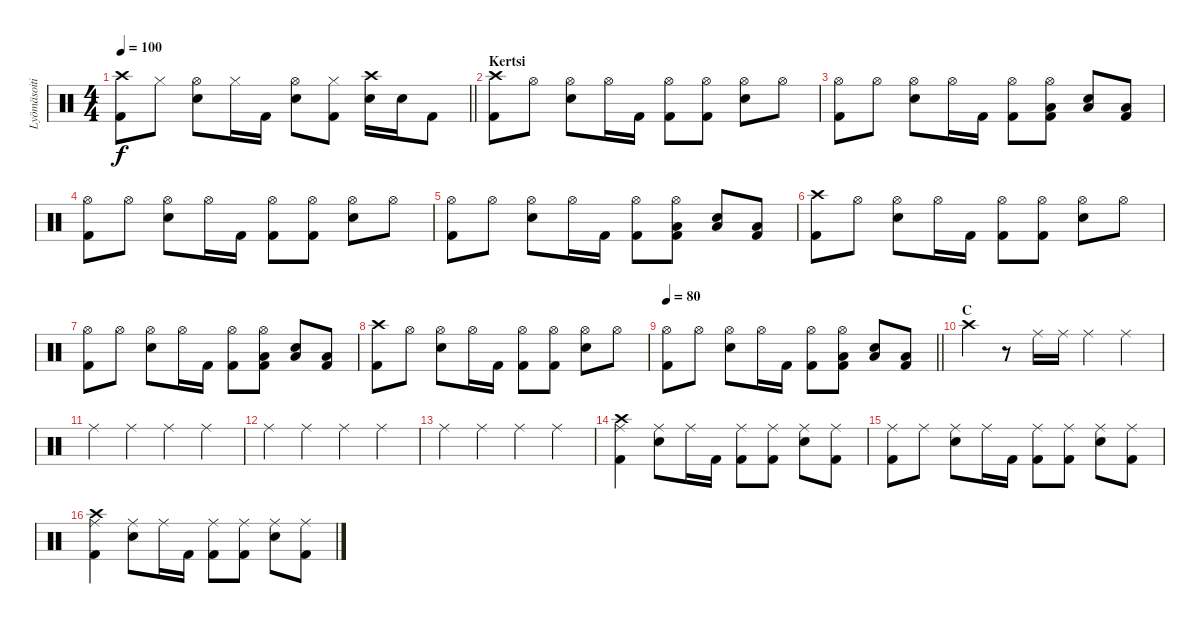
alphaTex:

\track ("Lyömäsoitin" "Lyömäsoiti") {instrument percussion}
\staff {score}
\articulation defaults
\ts (4 4)
\tempo 100
\clef neutral
\barLineRight lightlight
\ks c
("Crash high (hit)" "Kick (hit) 2").8{dy f} "Hi-Hat (closed)".8 ("Hi-Hat (open)" "Snare (hit) 2").8 "Hi-Hat (closed)".16 "Kick (hit) 2".16 ("Hi-Hat (open)" "Snare (hit) 2").8 ("Hi-Hat (closed)" "Kick (hit) 2").8 ("Crash high (hit)" "Snare (hit) 2").16 "Snare (hit) 2".16 "Kick (hit) 2".8 |
\section ("" "Kertsi")
("Crash high (hit)" "Kick (hit) 2").8 "Hi-Hat (open)".8 ("Hi-Hat (open)" "Snare (hit) 2").8 "Hi-Hat (open)".16 "Kick (hit) 2".16 ("Hi-Hat (open)" "Kick (hit) 2").8 ("Hi-Hat (open)" "Kick (hit) 2").8 ("Hi-Hat (open)" "Snare (hit) 2").8 "Hi-Hat (open)".8 |
("Hi-Hat (open)" "Kick (hit) 2").8 "Hi-Hat (open)".8 ("Hi-Hat (open)" "Snare (hit) 2").8 "Hi-Hat (open)".16 "Kick (hit) 2".16 ("Hi-Hat (open)" "Kick (hit) 2").8 ("Hi-Hat (open)" "Low Floor Tom (hit)" "Kick (hit) 2").8 ("Snare (hit) 2" "Low Floor Tom (hit)").8 ("Low Floor Tom (hit)" "Kick (hit) 2").8 |
("Hi-Hat (open)" "Kick (hit) 2").8 "Hi-Hat (open)".8 ("Hi-Hat (open)" "Snare (hit) 2").8 "Hi-Hat (open)".16 "Kick (hit) 2".16 ("Hi-Hat (open)" "Kick (hit) 2").8 ("Hi-Hat (open)" "Kick (hit) 2").8 ("Hi-Hat (open)" "Snare (hit) 2").8 "Hi-Hat (open)".8 |
("Hi-Hat (open)" "Kick (hit) 2").8 "Hi-Hat (open)".8 ("Hi-Hat (open)" "Snare (hit) 2").8 "Hi-Hat (open)".16 "Kick (hit) 2".16 ("Hi-Hat (open)" "Kick (hit) 2").8 ("Hi-Hat (open)" "Low Floor Tom (hit)" "Kick (hit) 2").8 ("Snare (hit) 2" "Low Floor Tom (hit)").8 ("Low Floor Tom (hit)" "Kick (hit) 2").8 |
("Crash high (hit)" "Kick (hit) 2").8 "Hi-Hat (open)".8 ("Hi-Hat (open)" "Snare (hit) 2").8 "Hi-Hat (open)".16 "Kick (hit) 2".16 ("Hi-Hat (open)" "Kick (hit) 2").8 ("Hi-Hat (open)" "Kick (hit) 2").8 ("Hi-Hat (open)" "Snare (hit) 2").8 "Hi-Hat (open)".8 |
("Hi-Hat (open)" "Kick (hit) 2").8 "Hi-Hat (open)".8 ("Hi-Hat (open)" "Snare (hit) 2").8 "Hi-Hat (open)".16 "Kick (hit) 2".16 ("Hi-Hat (open)" "Kick (hit) 2").8 ("Hi-Hat (open)" "Low Floor Tom (hit)" "Kick (hit) 2").8 ("Snare (hit) 2" "Low Floor Tom (hit)").8 ("Low Floor Tom (hit)" "Kick (hit) 2").8 |
("Crash high (hit)" "Kick (hit) 2").8 "Hi-Hat (open)".8 ("Hi-Hat (open)" "Snare (hit) 2").8 "Hi-Hat (open)".16 "Kick (hit) 2".16 ("Hi-Hat (open)" "Kick (hit) 2").8 ("Hi-Hat (open)" "Kick (hit) 2").8 ("Hi-Hat (open)" "Snare (hit) 2").8 "Hi-Hat (open)".8 |
\tempo 80
\barLineRight lightlight
("Hi-Hat (open)" "Kick (hit) 2").8 "Hi-Hat (open)".8 ("Hi-Hat (open)" "Snare (hit) 2").8 "Hi-Hat (open)".16 "Kick (hit) 2".16 ("Hi-Hat (open)" "Kick (hit) 2").8 ("Hi-Hat (open)" "Low Floor Tom (hit)" "Kick (hit) 2").8 ("Snare (hit) 2" "Low Floor Tom (hit)").8 ("Low Floor Tom (hit)" "Kick (hit) 2").8 |
\section ("" "C")
"Crash high (hit)".4 r.8 "Ride (middle)".16 "Ride (middle)".16 "Ride (middle)".4 "Ride (middle)".4 |
"Ride (middle)".4 "Ride (middle)".4 "Ride (middle)".4 "Ride (middle)".4 |
"Ride (middle)".4 "Ride (middle)".4 "Ride (middle)".4 "Ride (middle)".4 |
"Ride (middle)".4 "Ride (middle)".4 "Ride (middle)".4 "Ride (middle)".4 |
("Crash high (hit)" "Ride (middle)" "Kick (hit) 2").4 ("Ride (middle)" "Snare (hit) 2").8 "Ride (middle)".16 "Kick (hit) 2".16 ("Ride (middle)" "Kick (hit) 2").8 ("Ride (middle)" "Kick (hit) 2").8 ("Ride (middle)" "Snare (hit) 2").8 ("Ride (middle)" "Kick (hit) 2").8 |
("Ride (middle)" "Kick (hit) 2").8 "Ride (middle)".8 ("Ride (middle)" "Snare (hit) 2").8 "Ride (middle)".16 "Kick (hit) 2".16 ("Ride (middle)" "Kick (hit) 2").8 ("Ride (middle)" "Kick (hit) 2").8 ("Ride (middle)" "Snare (hit) 2").8 ("Ride (middle)" "Kick (hit) 2").8 |
("Crash high (hit)" "Ride (middle)" "Kick (hit) 2").4 ("Ride (middle)" "Snare (hit) 2").8 "Ride (middle)".16 "Kick (hit) 2".16 ("Ride (middle)" "Kick (hit) 2").8 ("Ride (middle)" "Kick (hit) 2").8 ("Ride (middle)" "Snare (hit) 2").8 ("Ride (middle)" "Kick (hit) 2").8
